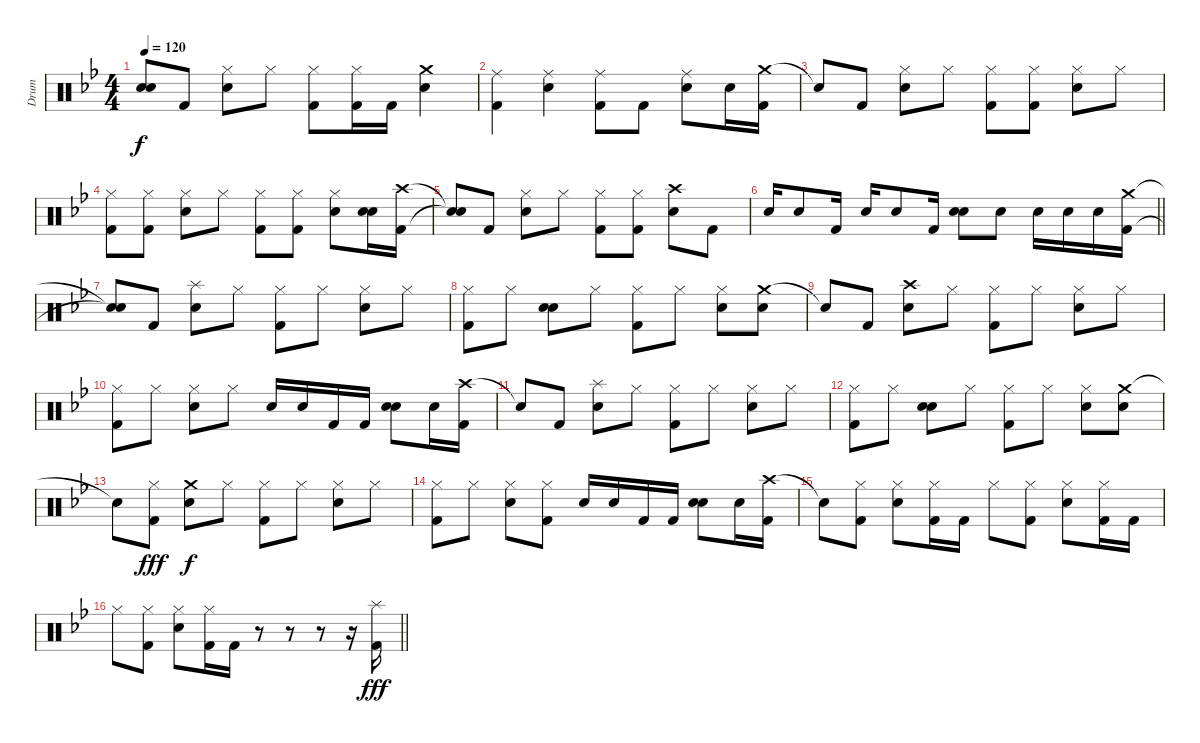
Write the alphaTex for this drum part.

\track ("Drum" "Drum") {instrument percussion}
\staff {score}
\articulation defaults
\ts (4 4)
\tempo 120
\clef neutral
\ks gminor
("Snare (hit)"{t} "Snare (hit)"{t}).8{dy f} "Kick (hit) 2".8 ("Hi-Hat (closed)" "Electric Snare (hit)").8 "Hi-Hat (closed)".8 ("Hi-Hat (closed)" "Kick (hit) 2").8 ("Hi-Hat (closed)" "Kick (hit) 2").16 "Kick (hit) 2".16 ("Crash medium (hit)" "Electric Snare (hit)").4 |
("Ride (middle)" "Kick (hit) 2").4 ("Ride (middle)" "Electric Snare (hit)").4 ("Ride (middle)" "Kick (hit) 2").8 "Kick (hit) 2".8 ("Ride (middle)" "Electric Snare (hit)").8 "Electric Snare (hit)".16 ("Crash medium (hit)" "Kick (hit) 2").16 |
"Snare (hit)"{t}.8 "Kick (hit) 2".8 ("Hi-Hat (closed)" "Electric Snare (hit)").8 "Hi-Hat (closed)".8 ("Hi-Hat (closed)" "Kick (hit) 2").8 ("Hi-Hat (closed)" "Kick (hit) 2").8 ("Hi-Hat (closed)" "Electric Snare (hit)").8 "Hi-Hat (closed)".8 |
("Hi-Hat (closed)" "Kick (hit) 2").8 ("Hi-Hat (closed)" "Kick (hit) 2").8 ("Hi-Hat (closed)" "Electric Snare (hit)").8 "Hi-Hat (closed)".8 ("Hi-Hat (closed)" "Kick (hit) 2").8 ("Hi-Hat (closed)" "Kick (hit) 2").8 ("Hi-Hat (closed)" "Electric Snare (hit)").8 ("Electric Snare (hit)" "Electric Snare (hit)").16 ("Crash high (hit)" "Kick (hit) 2").16 |
("Snare (hit)"{t} "Snare (hit)"{t}).8 "Kick (hit) 2".8 ("Hi-Hat (closed)" "Electric Snare (hit)").8 "Hi-Hat (closed)".8 ("Hi-Hat (closed)" "Kick (hit) 2").8 ("Hi-Hat (closed)" "Kick (hit) 2").8 ("Crash high (hit)" "Electric Snare (hit)").8 "Kick (hit) 2".8 |
\barLineRight lightlight "Electric Snare (hit)".16 "Electric Snare (hit)".8 "Kick (hit) 2".16 "Electric Snare (hit)".16 "Electric Snare (hit)".8 "Kick (hit) 2".16
("Electric Snare (hit)" "Electric Snare (hit)").8{bd 120} "Electric Snare (hit)".8 "Electric Snare (hit)".16 "Electric Snare (hit)".16 "Electric Snare (hit)".16 ("Crash medium (hit)" "Kick (hit) 2").16 |
("Snare (hit)"{t} "Snare (hit)"{t}).8 "Kick (hit) 2".8 ("Splash (hit)" "Electric Snare (hit)").8 "Hi-Hat (closed)".8 ("Hi-Hat (closed)" "Kick (hit) 2").8 "Hi-Hat (closed)".8 ("Hi-Hat (closed)" "Electric Snare (hit)").8 "Hi-Hat (closed)".8 |
("Hi-Hat (closed)" "Kick (hit) 2").8 "Hi-Hat (closed)".8 ("Snare (hit)" "Electric Snare (hit)").8 "Hi-Hat (closed)".8 ("Hi-Hat (closed)" "Kick (hit) 2").8 "Hi-Hat (closed)".8 ("Hi-Hat (closed)" "Electric Snare (hit)").8 ("Crash medium (hit)" "Electric Snare (hit)").8 |
"Snare (hit)"{t}.8 "Kick (hit) 2".8 ("Crash high (hit)" "Electric Snare (hit)").8 "Hi-Hat (closed)".8 ("Hi-Hat (closed)" "Kick (hit) 2").8 "Hi-Hat (closed)".8 ("Hi-Hat (closed)" "Electric Snare (hit)").8 "Hi-Hat (closed)".8 |
("Hi-Hat (closed)" "Kick (hit) 2").8 "Hi-Hat (closed)".8 ("Hi-Hat (closed)" "Electric Snare (hit)").8 "Hi-Hat (closed)".8 "Electric Snare (hit)".16 "Electric Snare (hit)".16 "Kick (hit) 2".16 "Kick (hit) 2".16 ("Electric Snare (hit)" "Electric Snare (hit)").8{bd 120} "Electric Snare (hit)".16 ("Crash high (hit)" "Kick (hit) 2").16 |
"Snare (hit)"{t}.8 "Kick (hit) 2".8 ("Splash (hit)" "Electric Snare (hit)").8 "Hi-Hat (closed)".8 ("Hi-Hat (closed)" "Kick (hit) 2").8 "Hi-Hat (closed)".8 ("Hi-Hat (closed)" "Electric Snare (hit)").8 "Hi-Hat (closed)".8 |
("Hi-Hat (closed)" "Kick (hit) 2").8 "Hi-Hat (closed)".8 ("Snare (hit)" "Electric Snare (hit)").8 "Hi-Hat (closed)".8 ("Hi-Hat (closed)" "Kick (hit) 2").8 "Hi-Hat (closed)".8 ("Hi-Hat (closed)" "Electric Snare (hit)").8 ("Crash medium (hit)" "Electric Snare (hit)").8 |
"Snare (hit)"{t}.8 ("Hi-Hat (closed)" "Kick (hit) 2").8{dy fff} ("Crash medium (hit)" "Electric Snare (hit)").8{dy f} "Hi-Hat (closed)".8 ("Hi-Hat (closed)" "Kick (hit) 2").8 "Hi-Hat (closed)".8 ("Hi-Hat (closed)" "Electric Snare (hit)").8 "Hi-Hat (closed)".8 |
("Hi-Hat (closed)" "Kick (hit) 2").8 "Hi-Hat (closed)".8 ("Hi-Hat (closed)" "Electric Snare (hit)").8 ("Hi-Hat (closed)" "Kick (hit) 2").8 "Electric Snare (hit)".16 "Electric Snare (hit)".16 "Kick (hit) 2".16 "Kick (hit) 2".16 ("Electric Snare (hit)" "Electric Snare (hit)").8 "Electric Snare (hit)".16 ("Crash high (hit)" "Kick (hit) 2").16 |
"Snare (hit)"{t}.8 ("Hi-Hat (closed)" "Kick (hit) 2").8 ("Hi-Hat (closed)" "Electric Snare (hit)").8 ("Hi-Hat (closed)" "Kick (hit) 2").16 "Kick (hit) 2".16 "Hi-Hat (closed)".8 ("Hi-Hat (closed)" "Kick (hit) 2").8 ("Hi-Hat (closed)" "Electric Snare (hit)").8 ("Hi-Hat (closed)" "Kick (hit) 2").16 "Kick (hit) 2".16 |
\barLineRight lightlight "Hi-Hat (closed)".8
("Hi-Hat (closed)" "Kick (hit) 2").8 ("Hi-Hat (closed)" "Electric Snare (hit)").8 ("Hi-Hat (closed)" "Kick (hit) 2").16 "Kick (hit) 2".16 r.8 r.8 r.8 r.16 ("Splash (hit)" "Kick (hit) 2").16{dy fff}
